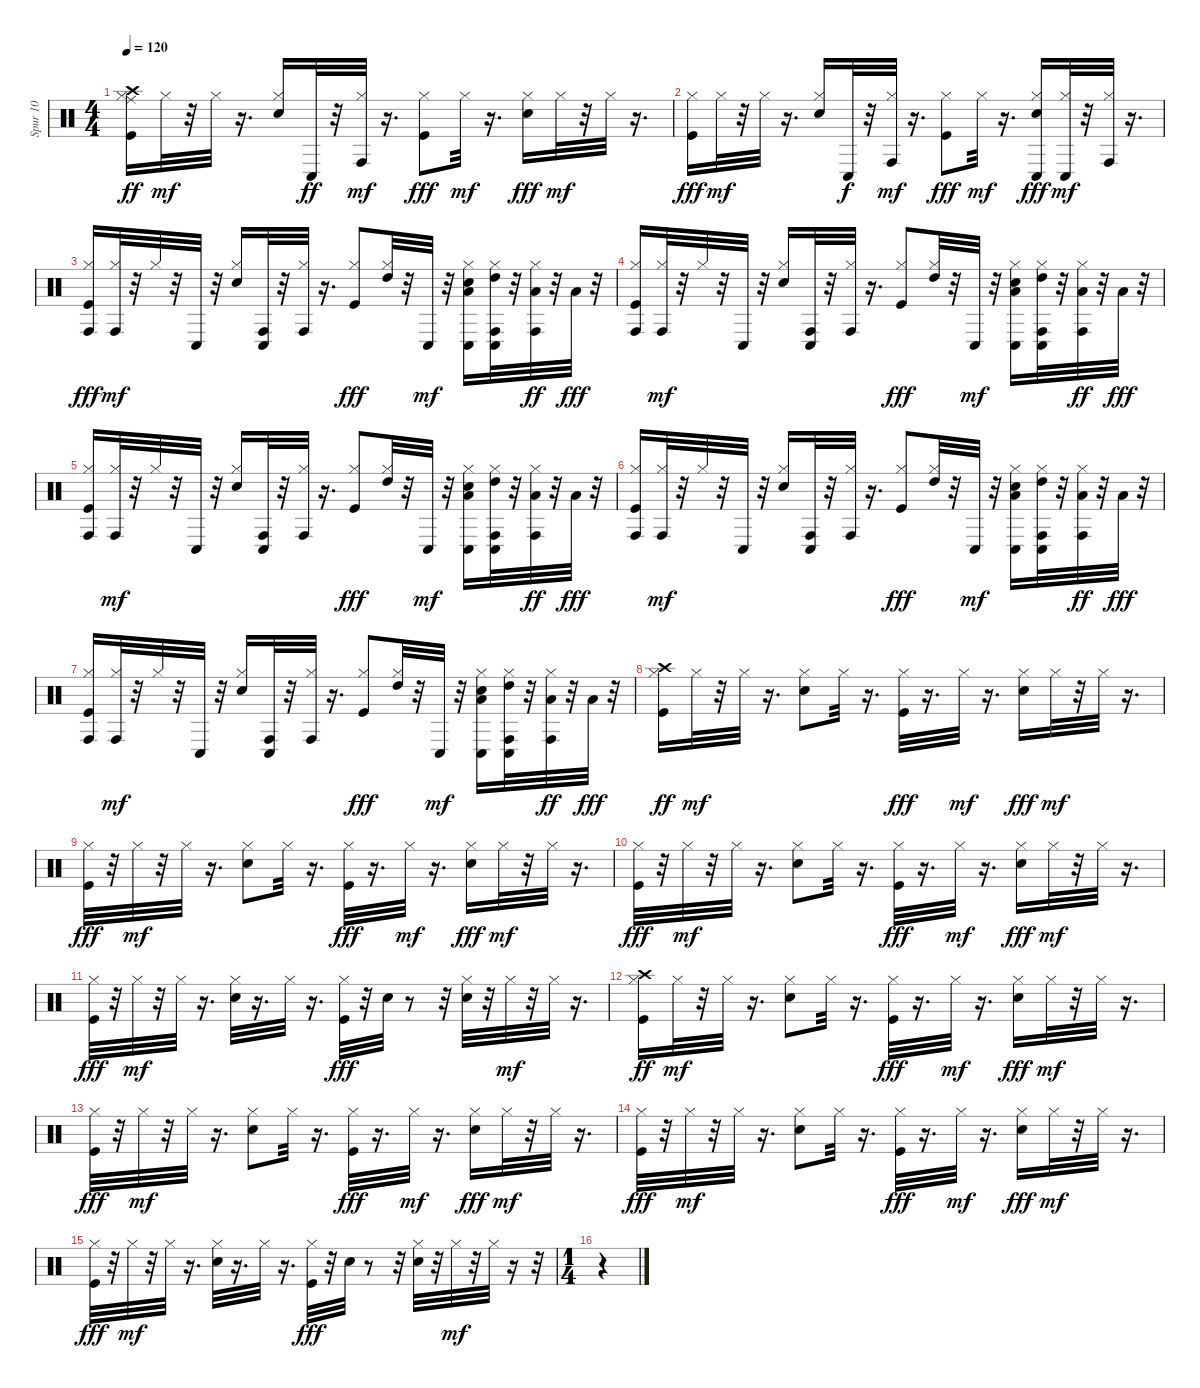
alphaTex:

\track ("Spur 10" "Spur 10") {instrument percussion}
\staff {score}
\articulation defaults
\ts (4 4)
\tempo 120
\clef neutral
\ks c
("Kick (hit)" "Hi-Hat (closed)" "Ride (middle)" "Crash high (hit)").16{dy ff} "Hi-Hat (closed)".32{dy mf} r.32 "Hi-Hat (closed)".32 r.16{d} ("Snare (hit) 2" "Hi-Hat (closed)").16 "Conga low (hit)".32{dy ff} r.32 ("Hi-Hat (closed)" "Conga high (hit)").32{dy mf} r.16{d} ("Kick (hit)" "Hi-Hat (closed)").8{dy fff} "Hi-Hat (closed)".32{dy mf} r.16{d} ("Snare (hit) 2" "Hi-Hat (closed)").16{dy fff} "Hi-Hat (closed)".32{dy mf} r.32 "Hi-Hat (closed)".32 r.16{d} |
("Kick (hit)" "Hi-Hat (closed)").16{dy fff} "Hi-Hat (closed)".32{dy mf} r.32 "Hi-Hat (closed)".32 r.16{d} ("Snare (hit) 2" "Hi-Hat (closed)").16 "Conga low (hit)".32{dy f} r.32 ("Hi-Hat (closed)" "Conga high (hit)").32{dy mf} r.16{d} ("Kick (hit)" "Hi-Hat (closed)").8{dy fff} "Hi-Hat (closed)".32{dy mf} r.16{d} ("Snare (hit) 2" "Hi-Hat (closed)" "Conga low (hit)").16{dy fff} ("Hi-Hat (closed)" "Conga low (hit)").32{dy mf} r.32 ("Hi-Hat (closed)" "Conga high (hit)").32 r.16{d} |
("Kick (hit)" "Hi-Hat (closed)" "Conga high (hit)").16{dy fff} ("Hi-Hat (closed)" "Conga high (hit)").32{dy mf} r.32 "Hi-Hat (closed)".32 r.32 "Conga low (hit)".32 r.32 ("Snare (hit) 2" "Hi-Hat (closed)").16 ("Conga high (hit)" "Conga low (hit)").32 r.32 ("Hi-Hat (closed)" "Conga high (hit)").32 r.16{d} ("Kick (hit)" "Hi-Hat (closed)").8{dy fff} ("Hi-Hat (closed)" "High Tom (hit)").32 r.32 "Conga low (hit)".32{dy mf} r.32 ("Snare (hit) 2" "Hi-Hat (closed)" "Low Tom (hit)" "Conga low (hit)").16 ("Hi-Hat (closed)" "High Tom (hit)" "Conga high (hit)" "Conga low (hit)").32 r.32 ("Hi-Hat (closed)" "Low Tom (hit)" "Conga high (hit)").32{dy ff} r.32 "Low Tom (hit)".32{dy fff} r.32 |
("Kick (hit)" "Hi-Hat (closed)" "Conga high (hit)").16 ("Hi-Hat (closed)" "Conga high (hit)").32{dy mf} r.32 "Hi-Hat (closed)".32 r.32 "Conga low (hit)".32 r.32 ("Snare (hit) 2" "Hi-Hat (closed)").16 ("Conga high (hit)" "Conga low (hit)").32 r.32 ("Hi-Hat (closed)" "Conga high (hit)").32 r.16{d} ("Kick (hit)" "Hi-Hat (closed)").8{dy fff} ("Hi-Hat (closed)" "High Tom (hit)").32 r.32 "Conga low (hit)".32{dy mf} r.32 ("Snare (hit) 2" "Hi-Hat (closed)" "Low Tom (hit)" "Conga low (hit)").16 ("Hi-Hat (closed)" "High Tom (hit)" "Conga high (hit)" "Conga low (hit)").32 r.32 ("Hi-Hat (closed)" "Low Tom (hit)" "Conga high (hit)").32{dy ff} r.32 "Low Tom (hit)".32{dy fff} r.32 |
("Kick (hit)" "Hi-Hat (closed)" "Conga high (hit)").16 ("Hi-Hat (closed)" "Conga high (hit)").32{dy mf} r.32 "Hi-Hat (closed)".32 r.32 "Conga low (hit)".32 r.32 ("Snare (hit) 2" "Hi-Hat (closed)").16 ("Conga high (hit)" "Conga low (hit)").32 r.32 ("Hi-Hat (closed)" "Conga high (hit)").32 r.16{d} ("Kick (hit)" "Hi-Hat (closed)").8{dy fff} ("Hi-Hat (closed)" "High Tom (hit)").32 r.32 "Conga low (hit)".32{dy mf} r.32 ("Snare (hit) 2" "Hi-Hat (closed)" "Low Tom (hit)" "Conga low (hit)").16 ("Hi-Hat (closed)" "High Tom (hit)" "Conga high (hit)" "Conga low (hit)").32 r.32 ("Hi-Hat (closed)" "Low Tom (hit)" "Conga high (hit)").32{dy ff} r.32 "Low Tom (hit)".32{dy fff} r.32 |
("Kick (hit)" "Hi-Hat (closed)" "Conga high (hit)").16 ("Hi-Hat (closed)" "Conga high (hit)").32{dy mf} r.32 "Hi-Hat (closed)".32 r.32 "Conga low (hit)".32 r.32 ("Snare (hit) 2" "Hi-Hat (closed)").16 ("Conga high (hit)" "Conga low (hit)").32 r.32 ("Hi-Hat (closed)" "Conga high (hit)").32 r.16{d} ("Kick (hit)" "Hi-Hat (closed)").8{dy fff} ("Hi-Hat (closed)" "High Tom (hit)").32 r.32 "Conga low (hit)".32{dy mf} r.32 ("Snare (hit) 2" "Hi-Hat (closed)" "Low Tom (hit)" "Conga low (hit)").16 ("Hi-Hat (closed)" "High Tom (hit)" "Conga high (hit)" "Conga low (hit)").32 r.32 ("Hi-Hat (closed)" "Low Tom (hit)" "Conga high (hit)").32{dy ff} r.32 "Low Tom (hit)".32{dy fff} r.32 |
("Kick (hit)" "Hi-Hat (closed)" "Conga high (hit)").16 ("Hi-Hat (closed)" "Conga high (hit)").32{dy mf} r.32 "Hi-Hat (closed)".32 r.32 "Conga low (hit)".32 r.32 ("Snare (hit) 2" "Hi-Hat (closed)").16 ("Conga high (hit)" "Conga low (hit)").32 r.32 ("Hi-Hat (closed)" "Conga high (hit)").32 r.16{d} ("Kick (hit)" "Hi-Hat (closed)").8{dy fff} ("Hi-Hat (closed)" "High Tom (hit)").32 r.32 "Conga low (hit)".32{dy mf} r.32 ("Snare (hit) 2" "Hi-Hat (closed)" "Low Tom (hit)" "Conga low (hit)").16 ("Hi-Hat (closed)" "High Tom (hit)" "Conga high (hit)" "Conga low (hit)").32 r.32 ("Hi-Hat (closed)" "Low Tom (hit)" "Conga high (hit)").32{dy ff} r.32 "Low Tom (hit)".32{dy fff} r.32 |
("Kick (hit)" "Hi-Hat (closed)" "Crash high (hit)").16{dy ff} "Hi-Hat (closed)".32{dy mf} r.32 "Hi-Hat (closed)".32 r.16{d} ("Snare (hit) 2" "Hi-Hat (closed)").8 "Hi-Hat (closed)".32 r.16{d} ("Kick (hit)" "Hi-Hat (closed)").32{dy fff} r.16{d} "Hi-Hat (closed)".32{dy mf} r.16{d} ("Snare (hit) 2" "Hi-Hat (closed)").16{dy fff} "Hi-Hat (closed)".32{dy mf} r.32 "Hi-Hat (closed)".32 r.16{d} |
("Kick (hit)" "Hi-Hat (closed)").32{dy fff} r.32 "Hi-Hat (closed)".32{dy mf} r.32 "Hi-Hat (closed)".32 r.16{d} ("Snare (hit) 2" "Hi-Hat (closed)").8 "Hi-Hat (closed)".32 r.16{d} ("Kick (hit)" "Hi-Hat (closed)").32{dy fff} r.16{d} "Hi-Hat (closed)".32{dy mf} r.16{d} ("Snare (hit) 2" "Hi-Hat (closed)").16{dy fff} "Hi-Hat (closed)".32{dy mf} r.32 "Hi-Hat (closed)".32 r.16{d} |
("Kick (hit)" "Hi-Hat (closed)").32{dy fff} r.32 "Hi-Hat (closed)".32{dy mf} r.32 "Hi-Hat (closed)".32 r.16{d} ("Snare (hit) 2" "Hi-Hat (closed)").8 "Hi-Hat (closed)".32 r.16{d} ("Kick (hit)" "Hi-Hat (closed)").32{dy fff} r.16{d} "Hi-Hat (closed)".32{dy mf} r.16{d} ("Snare (hit) 2" "Hi-Hat (closed)").16{dy fff} "Hi-Hat (closed)".32{dy mf} r.32 "Hi-Hat (closed)".32 r.16{d} |
("Kick (hit)" "Hi-Hat (closed)").32{dy fff} r.32 "Hi-Hat (closed)".32{dy mf} r.32 "Hi-Hat (closed)".32 r.16{d} ("Snare (hit) 2" "Hi-Hat (closed)").32 r.16{d} "Hi-Hat (closed)".32 r.16{d} ("Kick (hit)" "Hi-Hat (closed)").32{dy fff} r.32 "Snare (hit) 2".32 r.8 r.32 ("Snare (hit) 2" "Hi-Hat (closed)").32 r.32 "Hi-Hat (closed)".32{dy mf} r.32 "Hi-Hat (closed)".32 r.16{d} |
("Kick (hit)" "Hi-Hat (closed)" "Crash high (hit)").16{dy ff} "Hi-Hat (closed)".32{dy mf} r.32 "Hi-Hat (closed)".32 r.16{d} ("Snare (hit) 2" "Hi-Hat (closed)").8 "Hi-Hat (closed)".32 r.16{d} ("Kick (hit)" "Hi-Hat (closed)").32{dy fff} r.16{d} "Hi-Hat (closed)".32{dy mf} r.16{d} ("Snare (hit) 2" "Hi-Hat (closed)").16{dy fff} "Hi-Hat (closed)".32{dy mf} r.32 "Hi-Hat (closed)".32 r.16{d} |
("Kick (hit)" "Hi-Hat (closed)").32{dy fff} r.32 "Hi-Hat (closed)".32{dy mf} r.32 "Hi-Hat (closed)".32 r.16{d} ("Snare (hit) 2" "Hi-Hat (closed)").8 "Hi-Hat (closed)".32 r.16{d} ("Kick (hit)" "Hi-Hat (closed)").32{dy fff} r.16{d} "Hi-Hat (closed)".32{dy mf} r.16{d} ("Snare (hit) 2" "Hi-Hat (closed)").16{dy fff} "Hi-Hat (closed)".32{dy mf} r.32 "Hi-Hat (closed)".32 r.16{d} |
("Kick (hit)" "Hi-Hat (closed)").32{dy fff} r.32 "Hi-Hat (closed)".32{dy mf} r.32 "Hi-Hat (closed)".32 r.16{d} ("Snare (hit) 2" "Hi-Hat (closed)").8 "Hi-Hat (closed)".32 r.16{d} ("Kick (hit)" "Hi-Hat (closed)").32{dy fff} r.16{d} "Hi-Hat (closed)".32{dy mf} r.16{d} ("Snare (hit) 2" "Hi-Hat (closed)").16{dy fff} "Hi-Hat (closed)".32{dy mf} r.32 "Hi-Hat (closed)".32 r.16{d} |
("Kick (hit)" "Hi-Hat (closed)").32{dy fff} r.32 "Hi-Hat (closed)".32{dy mf} r.32 "Hi-Hat (closed)".32 r.16{d} ("Snare (hit) 2" "Hi-Hat (closed)").32 r.16{d} "Hi-Hat (closed)".32 r.16{d} ("Kick (hit)" "Hi-Hat (closed)").32{dy fff} r.32 "Snare (hit) 2".32 r.8 r.32 ("Snare (hit) 2" "Hi-Hat (closed)").32 r.32 "Hi-Hat (closed)".32{dy mf} r.32 "Hi-Hat (closed)".32 r.16 r.32 |
\ts (1 4)
r.4
